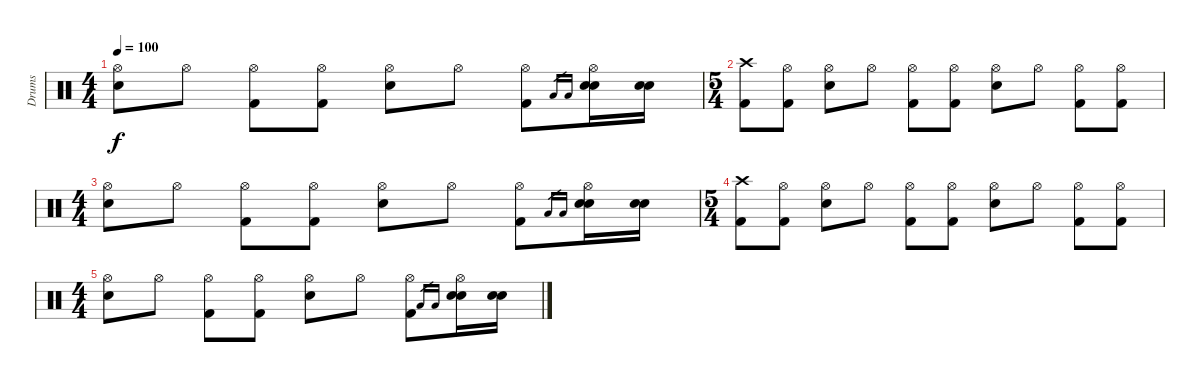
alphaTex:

\track ("Drums" "Drums") {instrument percussion}
\staff {score}
\articulation defaults
\ts (4 4)
\tempo 100
\clef neutral
\ks c
("Hi-Hat (open)" "Electric Snare (hit)").8{dy f} "Hi-Hat (open)".8 ("Hi-Hat (open)" "Kick (hit) 2").8 ("Hi-Hat (open)" "Kick (hit) 2").8 ("Hi-Hat (open)" "Electric Snare (hit)").8 "Hi-Hat (open)".8 ("Hi-Hat (open)" "Kick (hit) 2").8 "Low Floor Tom (hit)".16{gr} "Low Floor Tom (hit)".16{gr} ("Hi-Hat (open)" "Electric Snare (hit)" "Electric Snare (hit)").16 ("Electric Snare (hit)" "Electric Snare (hit)").16 |
\ts (5 4)
("Crash high (hit)" "Kick (hit) 2").8{volume 4} ("Hi-Hat (open)" "Kick (hit) 2").8 ("Hi-Hat (open)" "Electric Snare (hit)").8 "Hi-Hat (open)".8 ("Hi-Hat (open)" "Kick (hit) 2").8 ("Hi-Hat (open)" "Kick (hit) 2").8 ("Hi-Hat (open)" "Electric Snare (hit)").8 "Hi-Hat (open)".8 ("Hi-Hat (open)" "Kick (hit) 2").8 ("Hi-Hat (open)" "Kick (hit) 2").8 |
\ts (4 4)
("Hi-Hat (open)" "Electric Snare (hit)").8 "Hi-Hat (open)".8 ("Hi-Hat (open)" "Kick (hit) 2").8 ("Hi-Hat (open)" "Kick (hit) 2").8 ("Hi-Hat (open)" "Electric Snare (hit)").8 "Hi-Hat (open)".8 ("Hi-Hat (open)" "Kick (hit) 2").8 "Low Floor Tom (hit)".16{gr} "Low Floor Tom (hit)".16{gr} ("Hi-Hat (open)" "Electric Snare (hit)" "Electric Snare (hit)").16 ("Electric Snare (hit)" "Electric Snare (hit)").16 |
\ts (5 4)
("Crash high (hit)" "Kick (hit) 2").8{volume 0} ("Hi-Hat (open)" "Kick (hit) 2").8 ("Hi-Hat (open)" "Electric Snare (hit)").8 "Hi-Hat (open)".8 ("Hi-Hat (open)" "Kick (hit) 2").8 ("Hi-Hat (open)" "Kick (hit) 2").8 ("Hi-Hat (open)" "Electric Snare (hit)").8 "Hi-Hat (open)".8 ("Hi-Hat (open)" "Kick (hit) 2").8 ("Hi-Hat (open)" "Kick (hit) 2").8 |
\ts (4 4)
("Hi-Hat (open)" "Electric Snare (hit)").8 "Hi-Hat (open)".8 ("Hi-Hat (open)" "Kick (hit) 2").8 ("Hi-Hat (open)" "Kick (hit) 2").8 ("Hi-Hat (open)" "Electric Snare (hit)").8 "Hi-Hat (open)".8 ("Hi-Hat (open)" "Kick (hit) 2").8 "Low Floor Tom (hit)".16{gr} "Low Floor Tom (hit)".16{gr} ("Hi-Hat (open)" "Electric Snare (hit)" "Electric Snare (hit)").16 ("Electric Snare (hit)" "Electric Snare (hit)").16
